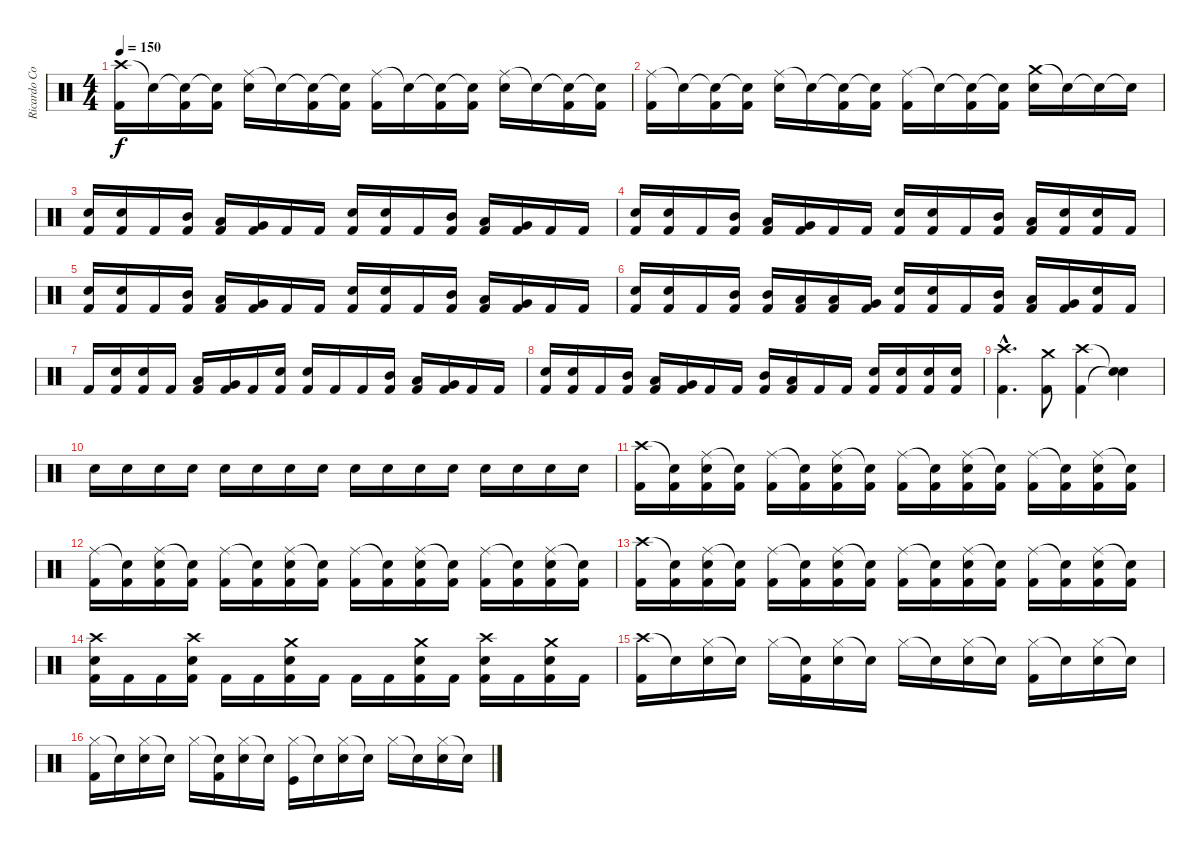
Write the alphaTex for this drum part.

\track ("Ricardo Confessori" "Ricardo Co") {instrument percussion}
\staff {score}
\articulation defaults
\ts (4 4)
\tempo 150
\clef neutral
\ks c
("Crash high (hit)" "Kick (hit) 2").16{dy f} "Snare (hit)"{t}.16 ("Snare (hit)"{t} "Kick (hit) 2").16 ("Snare (hit)"{t} "Kick (hit) 2").16 ("Ride (middle)" "Electric Snare (hit)").16 "Snare (hit)"{t}.16 ("Snare (hit)"{t} "Kick (hit) 2").16 ("Snare (hit)"{t} "Kick (hit) 2").16 ("Ride (middle)" "Kick (hit) 2").16 "Snare (hit)"{t}.16 ("Snare (hit)"{t} "Kick (hit) 2").16 ("Snare (hit)"{t} "Kick (hit) 2").16 ("Ride (middle)" "Electric Snare (hit)").16 "Snare (hit)"{t}.16 ("Snare (hit)"{t} "Kick (hit) 2").16 ("Snare (hit)"{t} "Kick (hit) 2").16 |
("Ride (middle)" "Kick (hit) 2").16 "Snare (hit)"{t}.16 ("Snare (hit)"{t} "Kick (hit) 2").16 ("Snare (hit)"{t} "Kick (hit) 2").16 ("Ride (middle)" "Electric Snare (hit)").16 "Snare (hit)"{t}.16 ("Snare (hit)"{t} "Kick (hit) 2").16 ("Snare (hit)"{t} "Kick (hit) 2").16 ("Ride (middle)" "Kick (hit) 2").16 "Snare (hit)"{t}.16 ("Snare (hit)"{t} "Kick (hit) 2").16 ("Snare (hit)"{t} "Kick (hit) 2").16 ("Crash medium (hit)" "Electric Snare (hit)").16 "Snare (hit)"{t}.16 "Snare (hit)"{t}.16 "Snare (hit)"{t}.16 |
("Electric Snare (hit)" "Kick (hit) 2").16 ("Electric Snare (hit)" "Kick (hit) 2").16 "Kick (hit) 2".16 ("Mid Tom (hit)" "Kick (hit) 2").16 ("Low Tom (hit)" "Kick (hit) 2").16 ("Very Low Tom (hit)" "Kick (hit) 2").16 "Kick (hit) 2".16 "Kick (hit) 2".16 ("Electric Snare (hit)" "Kick (hit) 2").16 ("Electric Snare (hit)" "Kick (hit) 2").16 "Kick (hit) 2".16 ("Mid Tom (hit)" "Kick (hit) 2").16 ("Low Tom (hit)" "Kick (hit) 2").16 ("Very Low Tom (hit)" "Kick (hit) 2").16 "Kick (hit) 2".16 "Kick (hit) 2".16 |
("Electric Snare (hit)" "Kick (hit) 2").16 ("Electric Snare (hit)" "Kick (hit) 2").16 "Kick (hit) 2".16 ("Mid Tom (hit)" "Kick (hit) 2").16 ("Low Tom (hit)" "Kick (hit) 2").16 ("Very Low Tom (hit)" "Kick (hit) 2").16 "Kick (hit) 2".16 "Kick (hit) 2".16 ("Electric Snare (hit)" "Kick (hit) 2").16 ("Electric Snare (hit)" "Kick (hit) 2").16 "Kick (hit) 2".16 ("Mid Tom (hit)" "Kick (hit) 2").16 ("Low Tom (hit)" "Kick (hit) 2").16 ("Electric Snare (hit)" "Kick (hit) 2").16 ("Electric Snare (hit)" "Kick (hit) 2").16 "Kick (hit) 2".16 |
("Electric Snare (hit)" "Kick (hit) 2").16 ("Electric Snare (hit)" "Kick (hit) 2").16 "Kick (hit) 2".16 ("Mid Tom (hit)" "Kick (hit) 2").16 ("Low Tom (hit)" "Kick (hit) 2").16 ("Very Low Tom (hit)" "Kick (hit) 2").16 "Kick (hit) 2".16 "Kick (hit) 2".16 ("Electric Snare (hit)" "Kick (hit) 2").16 ("Electric Snare (hit)" "Kick (hit) 2").16 "Kick (hit) 2".16 ("Mid Tom (hit)" "Kick (hit) 2").16 ("Low Tom (hit)" "Kick (hit) 2").16 ("Very Low Tom (hit)" "Kick (hit) 2").16 "Kick (hit) 2".16 "Kick (hit) 2".16 |
("Electric Snare (hit)" "Kick (hit) 2").16 ("Electric Snare (hit)" "Kick (hit) 2").16 "Kick (hit) 2".16 ("Mid Tom (hit)" "Kick (hit) 2").16 ("Mid Tom (hit)" "Kick (hit) 2").16 ("Low Tom (hit)" "Kick (hit) 2").16 ("Low Tom (hit)" "Kick (hit) 2").16 ("Very Low Tom (hit)" "Kick (hit) 2").16 ("Electric Snare (hit)" "Kick (hit) 2").16 ("Electric Snare (hit)" "Kick (hit) 2").16 "Kick (hit) 2".16 ("Mid Tom (hit)" "Kick (hit) 2").16 ("Low Tom (hit)" "Kick (hit) 2").16 ("Very Low Tom (hit)" "Kick (hit) 2").16 ("Electric Snare (hit)" "Kick (hit) 2").16 "Kick (hit) 2".16 |
"Kick (hit) 2".16 ("Electric Snare (hit)" "Kick (hit) 2").16 ("Electric Snare (hit)" "Kick (hit) 2").16 "Kick (hit) 2".16 ("Low Tom (hit)" "Kick (hit) 2").16 ("Very Low Tom (hit)" "Kick (hit) 2").16 "Kick (hit) 2".16 ("Electric Snare (hit)" "Kick (hit) 2").16 ("Electric Snare (hit)" "Kick (hit) 2").16 "Kick (hit) 2".16 "Kick (hit) 2".16 ("Mid Tom (hit)" "Kick (hit) 2").16 ("Low Tom (hit)" "Kick (hit) 2").16 ("Very Low Tom (hit)" "Kick (hit) 2").16 "Kick (hit) 2".16 "Kick (hit) 2".16 |
("Electric Snare (hit)" "Kick (hit) 2").16 ("Electric Snare (hit)" "Kick (hit) 2").16 "Kick (hit) 2".16 ("Mid Tom (hit)" "Kick (hit) 2").16 ("Low Tom (hit)" "Kick (hit) 2").16 ("Very Low Tom (hit)" "Kick (hit) 2").16 "Kick (hit) 2".16 "Kick (hit) 2".16 ("Mid Tom (hit)" "Kick (hit) 2").16 ("Low Tom (hit)" "Kick (hit) 2").16 "Kick (hit) 2".16 "Kick (hit) 2".16 ("Electric Snare (hit)" "Kick (hit) 2").16 ("Electric Snare (hit)" "Kick (hit) 2").16 ("Electric Snare (hit)" "Kick (hit) 2").16 ("Electric Snare (hit)" "Kick (hit) 2").16 |
("Crash high (hit)"{hac} "Kick (hit) 2"{hac}).4{d} ("Crash medium (hit)" "Kick (hit) 2").8 ("Crash high (hit)" "Kick (hit) 2").4 ("Snare (hit)"{t} "Snare (hit)"{t}).4 |
"Electric Snare (hit)".16 "Electric Snare (hit)".16 "Electric Snare (hit)".16 "Electric Snare (hit)".16 "Electric Snare (hit)".16 "Electric Snare (hit)".16 "Electric Snare (hit)".16 "Electric Snare (hit)".16 "Electric Snare (hit)".16 "Electric Snare (hit)".16 "Electric Snare (hit)".16 "Electric Snare (hit)".16 "Electric Snare (hit)".16 "Electric Snare (hit)".16 "Electric Snare (hit)".16 "Electric Snare (hit)".16 |
("Crash high (hit)" "Kick (hit) 2").16 ("Snare (hit)"{t} "Kick (hit) 2").16 ("Ride (middle)" "Electric Snare (hit)" "Kick (hit) 2").16 ("Snare (hit)"{t} "Kick (hit) 2").16 ("Ride (middle)" "Kick (hit) 2").16 ("Snare (hit)"{t} "Kick (hit) 2").16 ("Ride (middle)" "Electric Snare (hit)" "Kick (hit) 2").16 ("Snare (hit)"{t} "Kick (hit) 2").16 ("Ride (middle)" "Kick (hit) 2").16 ("Snare (hit)"{t} "Kick (hit) 2").16 ("Ride (middle)" "Electric Snare (hit)" "Kick (hit) 2").16 ("Snare (hit)"{t} "Kick (hit) 2").16 ("Ride (middle)" "Kick (hit) 2").16 ("Snare (hit)"{t} "Kick (hit) 2").16 ("Ride (middle)" "Electric Snare (hit)" "Kick (hit) 2").16 ("Snare (hit)"{t} "Kick (hit) 2").16 |
("Ride (middle)" "Kick (hit) 2").16 ("Snare (hit)"{t} "Kick (hit) 2").16 ("Ride (middle)" "Electric Snare (hit)" "Kick (hit) 2").16 ("Snare (hit)"{t} "Kick (hit) 2").16 ("Ride (middle)" "Kick (hit) 2").16 ("Snare (hit)"{t} "Kick (hit) 2").16 ("Ride (middle)" "Electric Snare (hit)" "Kick (hit) 2").16 ("Snare (hit)"{t} "Kick (hit) 2").16 ("Ride (middle)" "Kick (hit) 2").16 ("Snare (hit)"{t} "Kick (hit) 2").16 ("Ride (middle)" "Electric Snare (hit)" "Kick (hit) 2").16 ("Snare (hit)"{t} "Kick (hit) 2").16 ("Ride (middle)" "Kick (hit) 2").16 ("Snare (hit)"{t} "Kick (hit) 2").16 ("Ride (middle)" "Electric Snare (hit)" "Kick (hit) 2").16 ("Snare (hit)"{t} "Kick (hit) 2").16 |
("Crash high (hit)" "Kick (hit) 2").16 ("Snare (hit)"{t} "Kick (hit) 2").16 ("Ride (middle)" "Electric Snare (hit)" "Kick (hit) 2").16 ("Snare (hit)"{t} "Kick (hit) 2").16 ("Ride (middle)" "Kick (hit) 2").16 ("Snare (hit)"{t} "Kick (hit) 2").16 ("Ride (middle)" "Electric Snare (hit)" "Kick (hit) 2").16 ("Snare (hit)"{t} "Kick (hit) 2").16 ("Ride (middle)" "Kick (hit) 2").16 ("Snare (hit)"{t} "Kick (hit) 2").16 ("Ride (middle)" "Electric Snare (hit)" "Kick (hit) 2").16 ("Snare (hit)"{t} "Kick (hit) 2").16 ("Ride (middle)" "Kick (hit) 2").16 ("Snare (hit)"{t} "Kick (hit) 2").16 ("Ride (middle)" "Electric Snare (hit)" "Kick (hit) 2").16 ("Snare (hit)"{t} "Kick (hit) 2").16 |
("Crash high (hit)" "Electric Snare (hit)" "Kick (hit) 2").16 "Kick (hit) 2".16 "Kick (hit) 2".16 ("Crash high (hit)" "Electric Snare (hit)" "Kick (hit) 2").16 "Kick (hit) 2".16 "Kick (hit) 2".16 ("Crash medium (hit)" "Electric Snare (hit)" "Kick (hit) 2").16 "Kick (hit) 2".16 "Kick (hit) 2".16 "Kick (hit) 2".16 ("Crash medium (hit)" "Electric Snare (hit)" "Kick (hit) 2").16 "Kick (hit) 2".16 ("Crash high (hit)" "Electric Snare (hit)" "Kick (hit) 2").16 "Kick (hit) 2".16 ("Crash medium (hit)" "Electric Snare (hit)" "Kick (hit) 2").16 "Kick (hit) 2".16 |
("Crash high (hit)" "Kick (hit) 2").16 "Snare (hit)"{t}.16 ("Hi-Hat (closed)" "Electric Snare (hit)").16 "Snare (hit)"{t}.16 "Hi-Hat (closed)".16 ("Snare (hit)"{t} "Kick (hit) 2").16 ("Hi-Hat (closed)" "Electric Snare (hit)").16 "Snare (hit)"{t}.16 "Hi-Hat (closed)".16 "Snare (hit)"{t}.16 ("Hi-Hat (closed)" "Electric Snare (hit)").16 "Snare (hit)"{t}.16 ("Hi-Hat (closed)" "Kick (hit) 2").16 "Snare (hit)"{t}.16 ("Hi-Hat (closed)" "Electric Snare (hit)").16 "Snare (hit)"{t}.16 |
("Hi-Hat (closed)" "Kick (hit) 2").16 "Snare (hit)"{t}.16 ("Hi-Hat (closed)" "Electric Snare (hit)").16 "Snare (hit)"{t}.16 "Hi-Hat (closed)".16 ("Snare (hit)"{t} "Kick (hit) 2").16 ("Hi-Hat (closed)" "Electric Snare (hit)").16 "Snare (hit)"{t}.16 ("Hi-Hat (closed)" "Kick (hit)").16 "Snare (hit)"{t}.16 ("Hi-Hat (closed)" "Electric Snare (hit)").16 "Snare (hit)"{t}.16 "Hi-Hat (closed)".16 "Snare (hit)"{t}.16 ("Hi-Hat (closed)" "Electric Snare (hit)").16 "Snare (hit)"{t}.16
